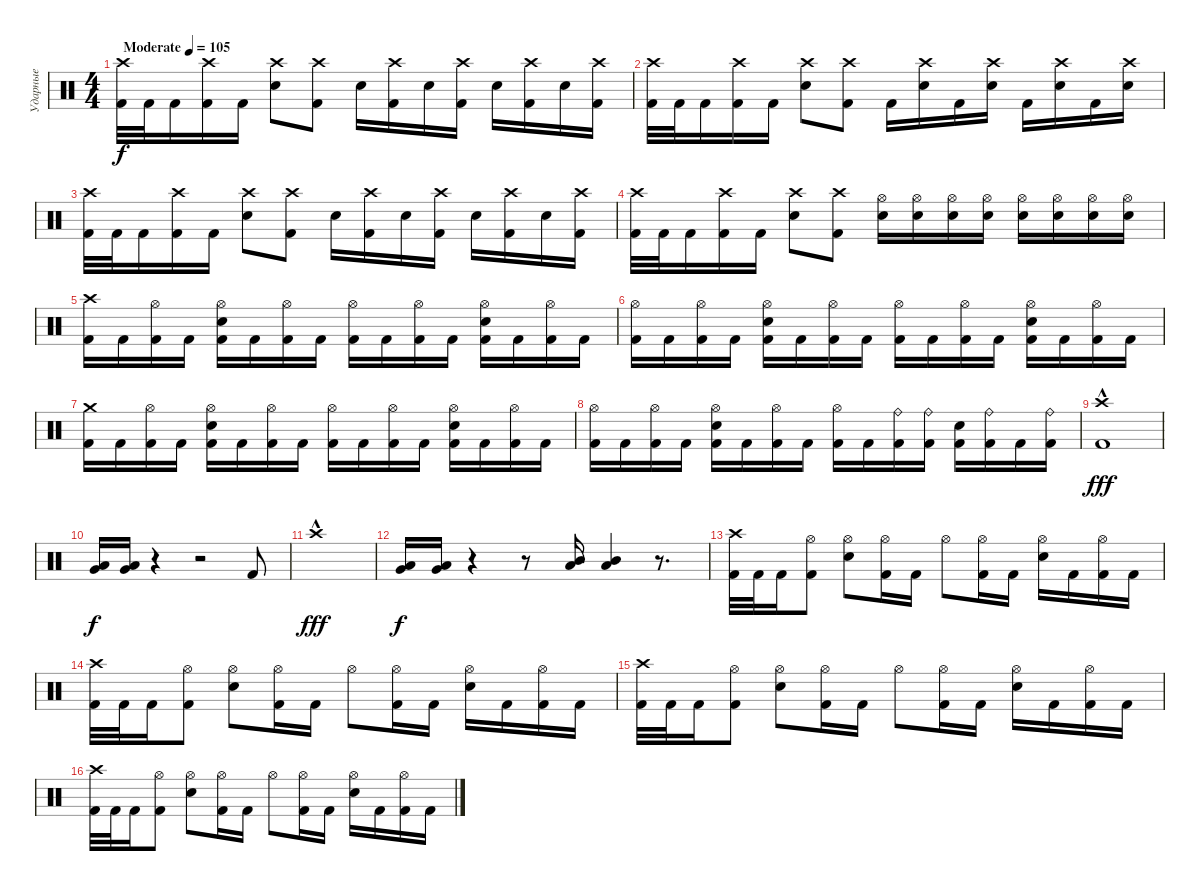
\track ("Ударные" "Ударные") {instrument percussion}
\staff {score}
\articulation defaults
\ts (4 4)
\tempo (105 "Moderate")
\clef neutral
\ks c
("Crash high (hit)" "Kick (hit) 2").32{dy f} "Kick (hit) 2".32 "Kick (hit) 2".16 ("Crash high (hit)" "Kick (hit) 2").16 "Kick (hit) 2".16 ("Crash high (hit)" "Snare (hit) 2").8 ("Crash high (hit)" "Kick (hit) 2").8 "Snare (hit) 2".16 ("Crash high (hit)" "Kick (hit) 2").16 "Snare (hit) 2".16 ("Crash high (hit)" "Kick (hit) 2").16 "Snare (hit) 2".16 ("Crash high (hit)" "Kick (hit) 2").16 "Snare (hit) 2".16 ("Crash high (hit)" "Kick (hit) 2").16 |
("Crash high (hit)" "Kick (hit) 2").32 "Kick (hit) 2".32 "Kick (hit) 2".16 ("Crash high (hit)" "Kick (hit) 2").16 "Kick (hit) 2".16 ("Crash high (hit)" "Snare (hit) 2").8 ("Crash high (hit)" "Kick (hit) 2").8 "Kick (hit) 2".16 ("Crash high (hit)" "Snare (hit) 2").16 "Kick (hit) 2".16 ("Crash high (hit)" "Snare (hit) 2").16 "Kick (hit) 2".16 ("Crash high (hit)" "Snare (hit) 2").16 "Kick (hit) 2".16 ("Crash high (hit)" "Snare (hit) 2").16 |
("Crash high (hit)" "Kick (hit) 2").32 "Kick (hit) 2".32 "Kick (hit) 2".16 ("Crash high (hit)" "Kick (hit) 2").16 "Kick (hit) 2".16 ("Crash high (hit)" "Snare (hit) 2").8 ("Crash high (hit)" "Kick (hit) 2").8 "Snare (hit) 2".16 ("Crash high (hit)" "Kick (hit) 2").16 "Snare (hit) 2".16 ("Crash high (hit)" "Kick (hit) 2").16 "Snare (hit) 2".16 ("Crash high (hit)" "Kick (hit) 2").16 "Snare (hit) 2".16 ("Crash high (hit)" "Kick (hit) 2").16 |
("Crash high (hit)" "Kick (hit) 2").32 "Kick (hit) 2".32 "Kick (hit) 2".16 ("Crash high (hit)" "Kick (hit) 2").16 "Kick (hit) 2".16 ("Crash high (hit)" "Snare (hit) 2").8 ("Crash high (hit)" "Kick (hit) 2").8 ("Hi-Hat (open)" "Snare (hit) 2").16 ("Hi-Hat (open)" "Snare (hit) 2").16 ("Hi-Hat (open)" "Snare (hit) 2").16 ("Hi-Hat (open)" "Snare (hit) 2").16 ("Hi-Hat (open)" "Snare (hit) 2").16 ("Hi-Hat (open)" "Snare (hit) 2").16 ("Hi-Hat (open)" "Snare (hit) 2").16 ("Hi-Hat (open)" "Snare (hit) 2").16 |
("Crash high (hit)" "Kick (hit) 2").16 "Kick (hit) 2".16 ("Hi-Hat (open)" "Kick (hit) 2").16 "Kick (hit) 2".16 ("Hi-Hat (open)" "Snare (hit) 2" "Kick (hit) 2").16 "Kick (hit) 2".16 ("Hi-Hat (open)" "Kick (hit) 2").16 "Kick (hit) 2".16 ("Hi-Hat (open)" "Kick (hit) 2").16 "Kick (hit) 2".16 ("Hi-Hat (open)" "Kick (hit) 2").16 "Kick (hit) 2".16 ("Hi-Hat (open)" "Snare (hit) 2" "Kick (hit) 2").16 "Kick (hit) 2".16 ("Hi-Hat (open)" "Kick (hit) 2").16 "Kick (hit) 2".16 |
("Hi-Hat (open)" "Kick (hit) 2").16 "Kick (hit) 2".16 ("Hi-Hat (open)" "Kick (hit) 2").16 "Kick (hit) 2".16 ("Hi-Hat (open)" "Snare (hit) 2" "Kick (hit) 2").16 "Kick (hit) 2".16 ("Hi-Hat (open)" "Kick (hit) 2").16 "Kick (hit) 2".16 ("Hi-Hat (open)" "Kick (hit) 2").16 "Kick (hit) 2".16 ("Hi-Hat (open)" "Kick (hit) 2").16 "Kick (hit) 2".16 ("Hi-Hat (open)" "Snare (hit) 2" "Kick (hit) 2").16 "Kick (hit) 2".16 ("Hi-Hat (open)" "Kick (hit) 2").16 "Kick (hit) 2".16 |
("Crash medium (hit)" "Kick (hit) 2").16 "Kick (hit) 2".16 ("Hi-Hat (open)" "Kick (hit) 2").16 "Kick (hit) 2".16 ("Hi-Hat (open)" "Snare (hit) 2" "Kick (hit) 2").16 "Kick (hit) 2".16 ("Hi-Hat (open)" "Kick (hit) 2").16 "Kick (hit) 2".16 ("Hi-Hat (open)" "Kick (hit) 2").16 "Kick (hit) 2".16 ("Hi-Hat (open)" "Kick (hit) 2").16 "Kick (hit) 2".16 ("Hi-Hat (open)" "Snare (hit) 2" "Kick (hit) 2").16 "Kick (hit) 2".16 ("Hi-Hat (open)" "Kick (hit) 2").16 "Kick (hit) 2".16 |
("Hi-Hat (open)" "Kick (hit) 2").16 "Kick (hit) 2".16 ("Hi-Hat (open)" "Kick (hit) 2").16 "Kick (hit) 2".16 ("Hi-Hat (open)" "Snare (hit) 2" "Kick (hit) 2").16 "Kick (hit) 2".16 ("Hi-Hat (open)" "Kick (hit) 2").16 "Kick (hit) 2".16 ("Hi-Hat (open)" "Kick (hit) 2").16 "Kick (hit) 2".16 ("Ride (bell)" "Kick (hit) 2").16 ("Ride (bell)" "Kick (hit) 2").16 ("Snare (hit) 2" "Kick (hit) 2").16 ("Ride (bell)" "Kick (hit) 2").16 "Kick (hit) 2".16 ("Ride (bell)" "Kick (hit) 2").16 |
("Crash high (hit)"{hac} "Kick (hit) 2").1{dy fff} |
("Very Low Tom (hit)" "Low Tom (hit)").16{dy f} ("Low Tom (hit)" "Very Low Tom (hit)").16 r.4 r.2 "Kick (hit) 2".8 |
"Crash high (hit)"{hac}.1{dy fff} |
("Very Low Tom (hit)" "Low Tom (hit)").16{dy f} ("Low Tom (hit)" "Very Low Tom (hit)").16 r.4 r.8 ("Low Tom (hit)" "Mid Tom (hit)").16 ("Low Tom (hit)" "Mid Tom (hit)").4 r.8{d} |
("Crash high (hit)" "Kick (hit) 2").32 "Kick (hit) 2".32 "Kick (hit) 2".16 ("Hi-Hat (open)" "Kick (hit) 2").8 ("Hi-Hat (open)" "Snare (hit) 2").8 ("Hi-Hat (open)" "Kick (hit) 2").16 "Kick (hit) 2".16 "Hi-Hat (open)".8 ("Hi-Hat (open)" "Kick (hit) 2").16 "Kick (hit) 2".16 ("Hi-Hat (open)" "Snare (hit) 2").16 "Kick (hit) 2".16 ("Hi-Hat (open)" "Kick (hit) 2").16 "Kick (hit) 2".16 |
("Crash high (hit)" "Kick (hit) 2").32 "Kick (hit) 2".32 "Kick (hit) 2".16 ("Hi-Hat (open)" "Kick (hit) 2").8 ("Hi-Hat (open)" "Snare (hit) 2").8 ("Hi-Hat (open)" "Kick (hit) 2").16 "Kick (hit) 2".16 "Hi-Hat (open)".8 ("Hi-Hat (open)" "Kick (hit) 2").16 "Kick (hit) 2".16 ("Hi-Hat (open)" "Snare (hit) 2").16 "Kick (hit) 2".16 ("Hi-Hat (open)" "Kick (hit) 2").16 "Kick (hit) 2".16 |
("Crash high (hit)" "Kick (hit) 2").32 "Kick (hit) 2".32 "Kick (hit) 2".16 ("Hi-Hat (open)" "Kick (hit) 2").8 ("Hi-Hat (open)" "Snare (hit) 2").8 ("Hi-Hat (open)" "Kick (hit) 2").16 "Kick (hit) 2".16 "Hi-Hat (open)".8 ("Hi-Hat (open)" "Kick (hit) 2").16 "Kick (hit) 2".16 ("Hi-Hat (open)" "Snare (hit) 2").16 "Kick (hit) 2".16 ("Hi-Hat (open)" "Kick (hit) 2").16 "Kick (hit) 2".16 |
("Crash high (hit)" "Kick (hit) 2").32 "Kick (hit) 2".32 "Kick (hit) 2".16 ("Hi-Hat (open)" "Kick (hit) 2").8 ("Hi-Hat (open)" "Snare (hit) 2").8 ("Hi-Hat (open)" "Kick (hit) 2").16 "Kick (hit) 2".16 "Hi-Hat (open)".8 ("Hi-Hat (open)" "Kick (hit) 2").16 "Kick (hit) 2".16 ("Hi-Hat (open)" "Snare (hit) 2").16 "Kick (hit) 2".16 ("Hi-Hat (open)" "Kick (hit) 2").16 "Kick (hit) 2".16
